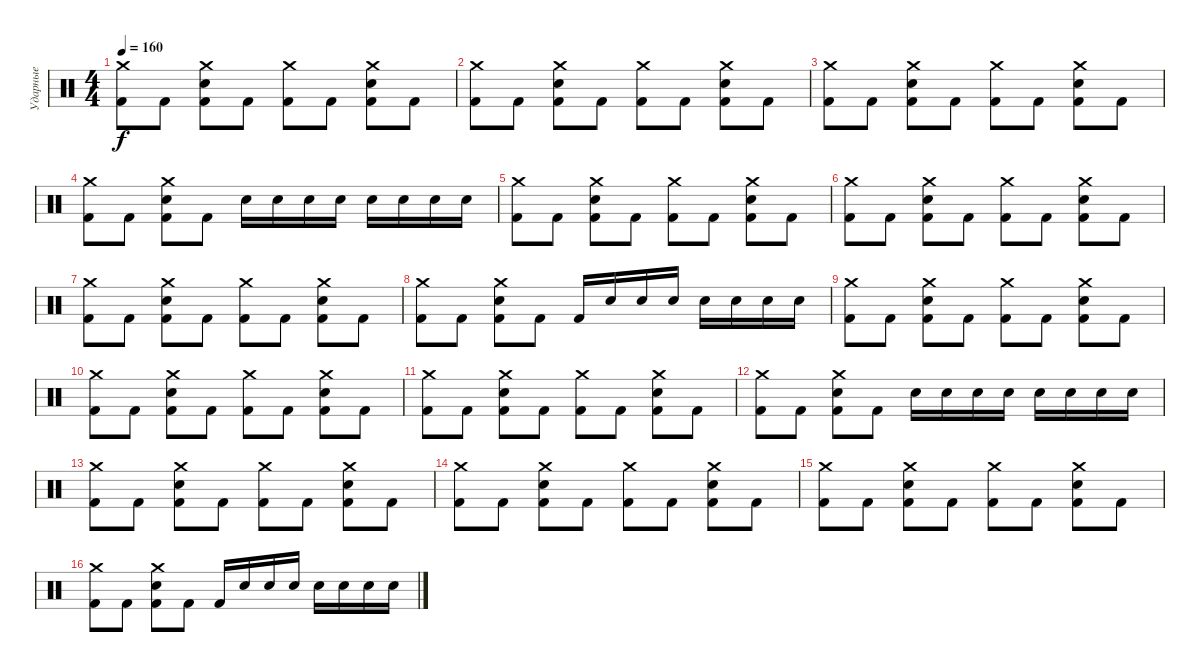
\track ("Ударные" "Ударные") {instrument percussion}
\staff {score}
\articulation defaults
\ts (4 4)
\tempo 160
\clef neutral
\ks c
("Crash medium (hit)" "Kick (hit) 2").8{dy f} "Kick (hit) 2".8 ("Crash medium (hit)" "Electric Snare (hit)" "Kick (hit) 2").8 "Kick (hit) 2".8 ("Crash medium (hit)" "Kick (hit) 2").8 "Kick (hit) 2".8 ("Crash medium (hit)" "Electric Snare (hit)" "Kick (hit) 2").8 "Kick (hit) 2".8 |
("Crash medium (hit)" "Kick (hit) 2").8 "Kick (hit) 2".8 ("Crash medium (hit)" "Electric Snare (hit)" "Kick (hit) 2").8 "Kick (hit) 2".8 ("Crash medium (hit)" "Kick (hit) 2").8 "Kick (hit) 2".8 ("Crash medium (hit)" "Electric Snare (hit)" "Kick (hit) 2").8 "Kick (hit) 2".8 |
("Crash medium (hit)" "Kick (hit) 2").8 "Kick (hit) 2".8 ("Crash medium (hit)" "Electric Snare (hit)" "Kick (hit) 2").8 "Kick (hit) 2".8 ("Crash medium (hit)" "Kick (hit) 2").8 "Kick (hit) 2".8 ("Crash medium (hit)" "Electric Snare (hit)" "Kick (hit) 2").8 "Kick (hit) 2".8 |
("Crash medium (hit)" "Kick (hit) 2").8 "Kick (hit) 2".8 ("Crash medium (hit)" "Electric Snare (hit)" "Kick (hit) 2").8 "Kick (hit) 2".8 "Electric Snare (hit)".16 "Electric Snare (hit)".16 "Electric Snare (hit)".16 "Electric Snare (hit)".16 "Electric Snare (hit)".16 "Electric Snare (hit)".16 "Electric Snare (hit)".16 "Electric Snare (hit)".16 |
("Crash medium (hit)" "Kick (hit) 2").8 "Kick (hit) 2".8 ("Crash medium (hit)" "Electric Snare (hit)" "Kick (hit) 2").8 "Kick (hit) 2".8 ("Crash medium (hit)" "Kick (hit) 2").8 "Kick (hit) 2".8 ("Crash medium (hit)" "Electric Snare (hit)" "Kick (hit) 2").8 "Kick (hit) 2".8 |
("Crash medium (hit)" "Kick (hit) 2").8 "Kick (hit) 2".8 ("Crash medium (hit)" "Electric Snare (hit)" "Kick (hit) 2").8 "Kick (hit) 2".8 ("Crash medium (hit)" "Kick (hit) 2").8 "Kick (hit) 2".8 ("Crash medium (hit)" "Electric Snare (hit)" "Kick (hit) 2").8 "Kick (hit) 2".8 |
("Crash medium (hit)" "Kick (hit) 2").8 "Kick (hit) 2".8 ("Crash medium (hit)" "Electric Snare (hit)" "Kick (hit) 2").8 "Kick (hit) 2".8 ("Crash medium (hit)" "Kick (hit) 2").8 "Kick (hit) 2".8 ("Crash medium (hit)" "Electric Snare (hit)" "Kick (hit) 2").8 "Kick (hit) 2".8 |
("Crash medium (hit)" "Kick (hit) 2").8 "Kick (hit) 2".8 ("Crash medium (hit)" "Electric Snare (hit)" "Kick (hit) 2").8 "Kick (hit) 2".8 "Kick (hit) 2".16 "Electric Snare (hit)".16 "Electric Snare (hit)".16 "Electric Snare (hit)".16 "Electric Snare (hit)".16 "Electric Snare (hit)".16 "Electric Snare (hit)".16 "Electric Snare (hit)".16 |
("Crash medium (hit)" "Kick (hit) 2").8 "Kick (hit) 2".8 ("Crash medium (hit)" "Electric Snare (hit)" "Kick (hit) 2").8 "Kick (hit) 2".8 ("Crash medium (hit)" "Kick (hit) 2").8 "Kick (hit) 2".8 ("Crash medium (hit)" "Electric Snare (hit)" "Kick (hit) 2").8 "Kick (hit) 2".8 |
("Crash medium (hit)" "Kick (hit) 2").8 "Kick (hit) 2".8 ("Crash medium (hit)" "Electric Snare (hit)" "Kick (hit) 2").8 "Kick (hit) 2".8 ("Crash medium (hit)" "Kick (hit) 2").8 "Kick (hit) 2".8 ("Crash medium (hit)" "Electric Snare (hit)" "Kick (hit) 2").8 "Kick (hit) 2".8 |
("Crash medium (hit)" "Kick (hit) 2").8 "Kick (hit) 2".8 ("Crash medium (hit)" "Electric Snare (hit)" "Kick (hit) 2").8 "Kick (hit) 2".8 ("Crash medium (hit)" "Kick (hit) 2").8 "Kick (hit) 2".8 ("Crash medium (hit)" "Electric Snare (hit)" "Kick (hit) 2").8 "Kick (hit) 2".8 |
("Crash medium (hit)" "Kick (hit) 2").8 "Kick (hit) 2".8 ("Crash medium (hit)" "Electric Snare (hit)" "Kick (hit) 2").8 "Kick (hit) 2".8 "Electric Snare (hit)".16 "Electric Snare (hit)".16 "Electric Snare (hit)".16 "Electric Snare (hit)".16 "Electric Snare (hit)".16 "Electric Snare (hit)".16 "Electric Snare (hit)".16 "Electric Snare (hit)".16 |
("Crash medium (hit)" "Kick (hit) 2").8 "Kick (hit) 2".8 ("Crash medium (hit)" "Electric Snare (hit)" "Kick (hit) 2").8 "Kick (hit) 2".8 ("Crash medium (hit)" "Kick (hit) 2").8 "Kick (hit) 2".8 ("Crash medium (hit)" "Electric Snare (hit)" "Kick (hit) 2").8 "Kick (hit) 2".8 |
("Crash medium (hit)" "Kick (hit) 2").8 "Kick (hit) 2".8 ("Crash medium (hit)" "Electric Snare (hit)" "Kick (hit) 2").8 "Kick (hit) 2".8 ("Crash medium (hit)" "Kick (hit) 2").8 "Kick (hit) 2".8 ("Crash medium (hit)" "Electric Snare (hit)" "Kick (hit) 2").8 "Kick (hit) 2".8 |
("Crash medium (hit)" "Kick (hit) 2").8 "Kick (hit) 2".8 ("Crash medium (hit)" "Electric Snare (hit)" "Kick (hit) 2").8 "Kick (hit) 2".8 ("Crash medium (hit)" "Kick (hit) 2").8 "Kick (hit) 2".8 ("Crash medium (hit)" "Electric Snare (hit)" "Kick (hit) 2").8 "Kick (hit) 2".8 |
("Crash medium (hit)" "Kick (hit) 2").8 "Kick (hit) 2".8 ("Crash medium (hit)" "Electric Snare (hit)" "Kick (hit) 2").8 "Kick (hit) 2".8 "Kick (hit) 2".16 "Electric Snare (hit)".16 "Electric Snare (hit)".16 "Electric Snare (hit)".16 "Electric Snare (hit)".16 "Electric Snare (hit)".16 "Electric Snare (hit)".16 "Electric Snare (hit)".16
